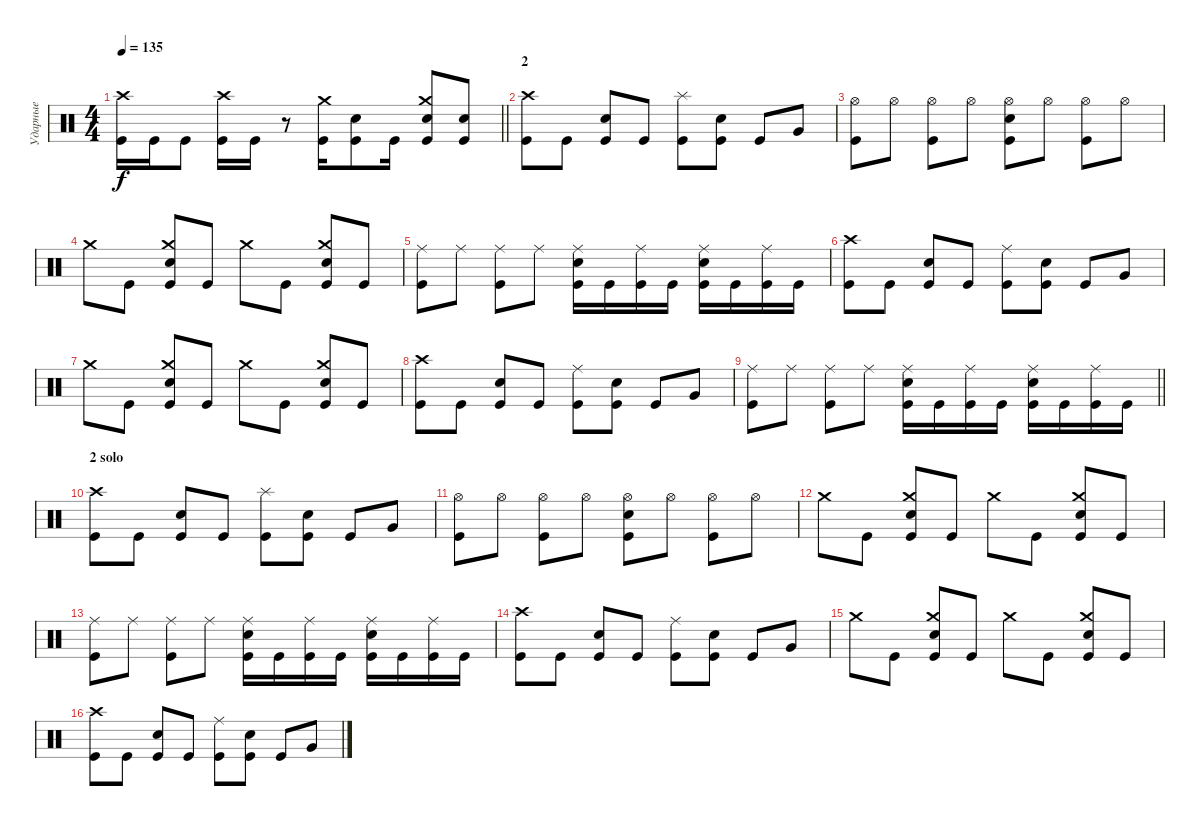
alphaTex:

\track ("Ударные" "Ударные") {instrument percussion}
\staff {score}
\articulation defaults
\ts (4 4)
\tempo 135
\clef neutral
\barLineRight lightlight
\ks c
("Crash high (hit)" "Kick (hit)").16{dy f} "Kick (hit)".16 "Kick (hit)".8 ("Crash high (hit)" "Kick (hit)").16 "Kick (hit)".16 r.8 ("Crash medium (hit)" "Kick (hit)").16 ("Electric Snare (hit)" "Kick (hit)").8 "Kick (hit)".16 ("Crash medium (hit)" "Electric Snare (hit)" "Kick (hit)").8 ("Electric Snare (hit)" "Kick (hit)").8 |
\section ("" "2")
("Crash high (hit)" "Kick (hit)").8 "Kick (hit)".8 ("Electric Snare (hit)" "Kick (hit)").8 "Kick (hit)".8 ("Splash (hit)" "Kick (hit)").8 ("Electric Snare (hit)" "Kick (hit)").8 "Kick (hit)".8 "Very Low Tom (hit)".8 |
("Hi-Hat (open)" "Kick (hit)").8 "Hi-Hat (open)".8 ("Hi-Hat (open)" "Kick (hit)").8 "Hi-Hat (open)".8 ("Hi-Hat (open)" "Electric Snare (hit)" "Kick (hit)").8 "Hi-Hat (open)".8 ("Hi-Hat (open)" "Kick (hit)").8 "Hi-Hat (open)".8 |
"Crash medium (hit)".8 "Kick (hit)".8 ("Crash medium (hit)" "Electric Snare (hit)" "Kick (hit)").8 "Kick (hit)".8 "Crash medium (hit)".8 "Kick (hit)".8 ("Crash medium (hit)" "Electric Snare (hit)" "Kick (hit)").8 "Kick (hit)".8 |
("Ride (middle)" "Kick (hit)").8 "Ride (middle)".8 ("Ride (middle)" "Kick (hit)").8 "Ride (middle)".8 ("Ride (middle)" "Electric Snare (hit)" "Kick (hit)").16 "Kick (hit)".16 ("Ride (middle)" "Kick (hit)").16 "Kick (hit)".16 ("Ride (middle)" "Electric Snare (hit)" "Kick (hit)").16 "Kick (hit)".16 ("Ride (middle)" "Kick (hit)").16 "Kick (hit)".16 |
("Crash high (hit)" "Kick (hit)").8 "Kick (hit)".8 ("Electric Snare (hit)" "Kick (hit)").8 "Kick (hit)".8 ("Ride (middle)" "Kick (hit)").8 ("Electric Snare (hit)" "Kick (hit)").8 "Kick (hit)".8 "Very Low Tom (hit)".8 |
"Crash medium (hit)".8 "Kick (hit)".8 ("Crash medium (hit)" "Electric Snare (hit)" "Kick (hit)").8 "Kick (hit)".8 "Crash medium (hit)".8 "Kick (hit)".8 ("Crash medium (hit)" "Electric Snare (hit)" "Kick (hit)").8 "Kick (hit)".8 |
("Crash high (hit)" "Kick (hit)").8 "Kick (hit)".8 ("Electric Snare (hit)" "Kick (hit)").8 "Kick (hit)".8 ("Ride (middle)" "Kick (hit)").8 ("Electric Snare (hit)" "Kick (hit)").8 "Kick (hit)".8 "Very Low Tom (hit)".8 |
\barLineRight lightlight
("Ride (middle)" "Kick (hit)").8 "Ride (middle)".8 ("Ride (middle)" "Kick (hit)").8 "Ride (middle)".8 ("Ride (middle)" "Electric Snare (hit)" "Kick (hit)").16 "Kick (hit)".16 ("Ride (middle)" "Kick (hit)").16 "Kick (hit)".16 ("Ride (middle)" "Electric Snare (hit)" "Kick (hit)").16 "Kick (hit)".16 ("Ride (middle)" "Kick (hit)").16 "Kick (hit)".16 |
\section ("" "2 solo")
("Crash high (hit)" "Kick (hit)").8 "Kick (hit)".8 ("Electric Snare (hit)" "Kick (hit)").8 "Kick (hit)".8 ("Splash (hit)" "Kick (hit)").8 ("Electric Snare (hit)" "Kick (hit)").8 "Kick (hit)".8 "Very Low Tom (hit)".8 |
("Hi-Hat (open)" "Kick (hit)").8 "Hi-Hat (open)".8 ("Hi-Hat (open)" "Kick (hit)").8 "Hi-Hat (open)".8 ("Hi-Hat (open)" "Electric Snare (hit)" "Kick (hit)").8 "Hi-Hat (open)".8 ("Hi-Hat (open)" "Kick (hit)").8 "Hi-Hat (open)".8 |
"Crash medium (hit)".8 "Kick (hit)".8 ("Crash medium (hit)" "Electric Snare (hit)" "Kick (hit)").8 "Kick (hit)".8 "Crash medium (hit)".8 "Kick (hit)".8 ("Crash medium (hit)" "Electric Snare (hit)" "Kick (hit)").8 "Kick (hit)".8 |
("Ride (middle)" "Kick (hit)").8 "Ride (middle)".8 ("Ride (middle)" "Kick (hit)").8 "Ride (middle)".8 ("Ride (middle)" "Electric Snare (hit)" "Kick (hit)").16 "Kick (hit)".16 ("Ride (middle)" "Kick (hit)").16 "Kick (hit)".16 ("Ride (middle)" "Electric Snare (hit)" "Kick (hit)").16 "Kick (hit)".16 ("Ride (middle)" "Kick (hit)").16 "Kick (hit)".16 |
("Crash high (hit)" "Kick (hit)").8 "Kick (hit)".8 ("Electric Snare (hit)" "Kick (hit)").8 "Kick (hit)".8 ("Ride (middle)" "Kick (hit)").8 ("Electric Snare (hit)" "Kick (hit)").8 "Kick (hit)".8 "Very Low Tom (hit)".8 |
"Crash medium (hit)".8 "Kick (hit)".8 ("Crash medium (hit)" "Electric Snare (hit)" "Kick (hit)").8 "Kick (hit)".8 "Crash medium (hit)".8 "Kick (hit)".8 ("Crash medium (hit)" "Electric Snare (hit)" "Kick (hit)").8 "Kick (hit)".8 |
("Crash high (hit)" "Kick (hit)").8 "Kick (hit)".8 ("Electric Snare (hit)" "Kick (hit)").8 "Kick (hit)".8 ("Ride (middle)" "Kick (hit)").8 ("Electric Snare (hit)" "Kick (hit)").8 "Kick (hit)".8 "Very Low Tom (hit)".8
